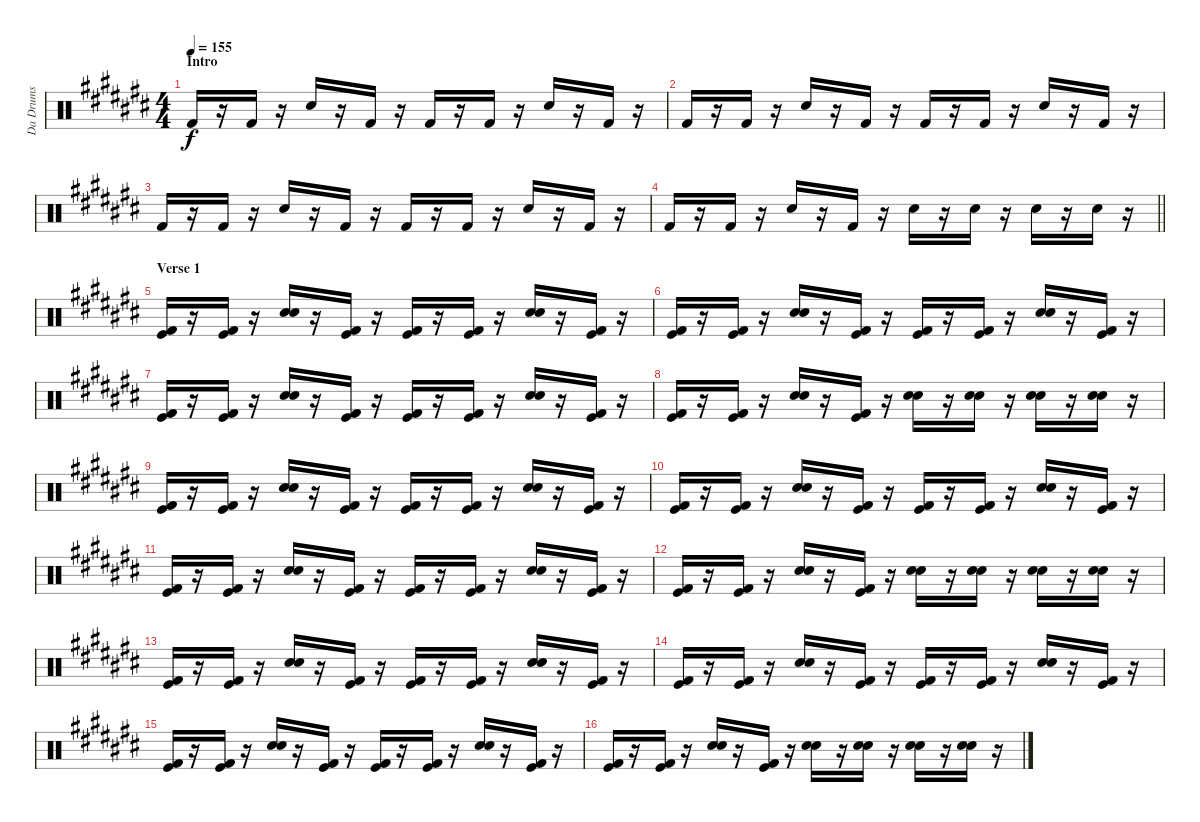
\track ("Da Drums" "Da Drums") {instrument percussion}
\staff {score}
\articulation defaults
\ts (4 4)
\section ("" "Intro")
\tempo 155
\clef neutral
\ks c# "Kick (hit) 2".16{dy f}
r.16 "Kick (hit) 2".16 r.16 "Snare (hit) 2".16 r.16 "Kick (hit) 2".16 r.16 "Kick (hit) 2".16 r.16 "Kick (hit) 2".16 r.16 "Snare (hit) 2".16 r.16 "Kick (hit) 2".16 r.16 |
"Kick (hit) 2".16 r.16 "Kick (hit) 2".16 r.16 "Snare (hit) 2".16 r.16 "Kick (hit) 2".16 r.16 "Kick (hit) 2".16 r.16 "Kick (hit) 2".16 r.16 "Snare (hit) 2".16 r.16 "Kick (hit) 2".16 r.16 |
"Kick (hit) 2".16 r.16 "Kick (hit) 2".16 r.16 "Snare (hit) 2".16 r.16 "Kick (hit) 2".16 r.16 "Kick (hit) 2".16 r.16 "Kick (hit) 2".16 r.16 "Snare (hit) 2".16 r.16 "Kick (hit) 2".16 r.16 |
\barLineRight lightlight "Kick (hit) 2".16
r.16 "Kick (hit) 2".16 r.16 "Snare (hit) 2".16 r.16 "Kick (hit) 2".16 r.16 "Snare (hit) 2".16 r.16 "Snare (hit) 2".16 r.16 "Snare (hit) 2".16 r.16 "Snare (hit) 2".16 r.16 |
\section ("" "Verse 1")
("Kick (hit)" "Kick (hit) 2").16 r.16 ("Kick (hit)" "Kick (hit) 2").16 r.16 ("Electric Snare (hit)" "Snare (hit) 2").16 r.16 ("Kick (hit)" "Kick (hit) 2").16 r.16 ("Kick (hit)" "Kick (hit) 2").16 r.16 ("Kick (hit)" "Kick (hit) 2").16 r.16 ("Electric Snare (hit)" "Snare (hit) 2").16 r.16 ("Kick (hit)" "Kick (hit) 2").16 r.16 |
("Kick (hit)" "Kick (hit) 2").16 r.16 ("Kick (hit)" "Kick (hit) 2").16 r.16 ("Electric Snare (hit)" "Snare (hit) 2").16 r.16 ("Kick (hit)" "Kick (hit) 2").16 r.16 ("Kick (hit)" "Kick (hit) 2").16 r.16 ("Kick (hit)" "Kick (hit) 2").16 r.16 ("Electric Snare (hit)" "Snare (hit) 2").16 r.16 ("Kick (hit)" "Kick (hit) 2").16 r.16 |
("Kick (hit)" "Kick (hit) 2").16 r.16 ("Kick (hit)" "Kick (hit) 2").16 r.16 ("Electric Snare (hit)" "Snare (hit) 2").16 r.16 ("Kick (hit)" "Kick (hit) 2").16 r.16 ("Kick (hit)" "Kick (hit) 2").16 r.16 ("Kick (hit)" "Kick (hit) 2").16 r.16 ("Electric Snare (hit)" "Snare (hit) 2").16 r.16 ("Kick (hit)" "Kick (hit) 2").16 r.16 |
("Kick (hit)" "Kick (hit) 2").16 r.16 ("Kick (hit)" "Kick (hit) 2").16 r.16 ("Electric Snare (hit)" "Snare (hit) 2").16 r.16 ("Kick (hit)" "Kick (hit) 2").16 r.16 ("Electric Snare (hit)" "Snare (hit) 2").16 r.16 ("Electric Snare (hit)" "Snare (hit) 2").16 r.16 ("Electric Snare (hit)" "Snare (hit) 2").16 r.16 ("Electric Snare (hit)" "Snare (hit) 2").16 r.16 |
("Kick (hit)" "Kick (hit) 2").16 r.16 ("Kick (hit)" "Kick (hit) 2").16 r.16 ("Electric Snare (hit)" "Snare (hit) 2").16 r.16 ("Kick (hit)" "Kick (hit) 2").16 r.16 ("Kick (hit)" "Kick (hit) 2").16 r.16 ("Kick (hit)" "Kick (hit) 2").16 r.16 ("Electric Snare (hit)" "Snare (hit) 2").16 r.16 ("Kick (hit)" "Kick (hit) 2").16 r.16 |
("Kick (hit)" "Kick (hit) 2").16 r.16 ("Kick (hit)" "Kick (hit) 2").16 r.16 ("Electric Snare (hit)" "Snare (hit) 2").16 r.16 ("Kick (hit)" "Kick (hit) 2").16 r.16 ("Kick (hit)" "Kick (hit) 2").16 r.16 ("Kick (hit)" "Kick (hit) 2").16 r.16 ("Electric Snare (hit)" "Snare (hit) 2").16 r.16 ("Kick (hit)" "Kick (hit) 2").16 r.16 |
("Kick (hit)" "Kick (hit) 2").16 r.16 ("Kick (hit)" "Kick (hit) 2").16 r.16 ("Electric Snare (hit)" "Snare (hit) 2").16 r.16 ("Kick (hit)" "Kick (hit) 2").16 r.16 ("Kick (hit)" "Kick (hit) 2").16 r.16 ("Kick (hit)" "Kick (hit) 2").16 r.16 ("Electric Snare (hit)" "Snare (hit) 2").16 r.16 ("Kick (hit)" "Kick (hit) 2").16 r.16 |
("Kick (hit)" "Kick (hit) 2").16 r.16 ("Kick (hit)" "Kick (hit) 2").16 r.16 ("Electric Snare (hit)" "Snare (hit) 2").16 r.16 ("Kick (hit)" "Kick (hit) 2").16 r.16 ("Electric Snare (hit)" "Snare (hit) 2").16 r.16 ("Electric Snare (hit)" "Snare (hit) 2").16 r.16 ("Electric Snare (hit)" "Snare (hit) 2").16 r.16 ("Electric Snare (hit)" "Snare (hit) 2").16 r.16 |
("Kick (hit)" "Kick (hit) 2").16 r.16 ("Kick (hit)" "Kick (hit) 2").16 r.16 ("Electric Snare (hit)" "Snare (hit) 2").16 r.16 ("Kick (hit)" "Kick (hit) 2").16 r.16 ("Kick (hit)" "Kick (hit) 2").16 r.16 ("Kick (hit)" "Kick (hit) 2").16 r.16 ("Electric Snare (hit)" "Snare (hit) 2").16 r.16 ("Kick (hit)" "Kick (hit) 2").16 r.16 |
("Kick (hit)" "Kick (hit) 2").16 r.16 ("Kick (hit)" "Kick (hit) 2").16 r.16 ("Electric Snare (hit)" "Snare (hit) 2").16 r.16 ("Kick (hit)" "Kick (hit) 2").16 r.16 ("Kick (hit)" "Kick (hit) 2").16 r.16 ("Kick (hit)" "Kick (hit) 2").16 r.16 ("Electric Snare (hit)" "Snare (hit) 2").16 r.16 ("Kick (hit)" "Kick (hit) 2").16 r.16 |
("Kick (hit)" "Kick (hit) 2").16 r.16 ("Kick (hit)" "Kick (hit) 2").16 r.16 ("Electric Snare (hit)" "Snare (hit) 2").16 r.16 ("Kick (hit)" "Kick (hit) 2").16 r.16 ("Kick (hit)" "Kick (hit) 2").16 r.16 ("Kick (hit)" "Kick (hit) 2").16 r.16 ("Electric Snare (hit)" "Snare (hit) 2").16 r.16 ("Kick (hit)" "Kick (hit) 2").16 r.16 |
("Kick (hit)" "Kick (hit) 2").16 r.16 ("Kick (hit)" "Kick (hit) 2").16 r.16 ("Electric Snare (hit)" "Snare (hit) 2").16 r.16 ("Kick (hit)" "Kick (hit) 2").16 r.16 ("Electric Snare (hit)" "Snare (hit) 2").16 r.16 ("Electric Snare (hit)" "Snare (hit) 2").16 r.16 ("Electric Snare (hit)" "Snare (hit) 2").16 r.16 ("Electric Snare (hit)" "Snare (hit) 2").16 r.16
